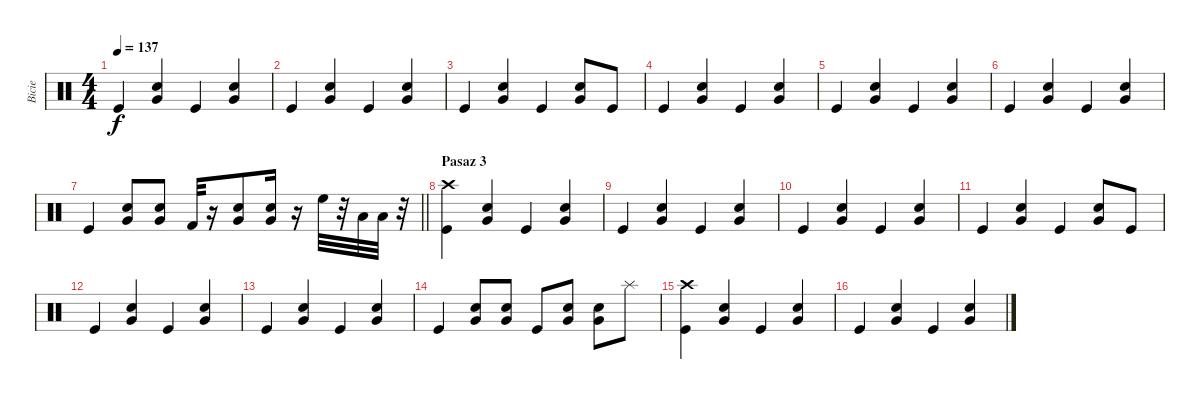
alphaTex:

\track ("Bicie" "Bicie") {instrument percussion}
\staff {score}
\articulation defaults
\ts (4 4)
\tempo 137
\clef neutral
\ks c "Kick (hit)".4{dy f}
("Very Low Tom (hit)" "Snare (hit) 2").4 "Kick (hit)".4 ("Very Low Tom (hit)" "Snare (hit) 2").4 |
"Kick (hit)".4 ("Very Low Tom (hit)" "Snare (hit) 2").4 "Kick (hit)".4 ("Very Low Tom (hit)" "Snare (hit) 2").4 |
"Kick (hit)".4 ("Very Low Tom (hit)" "Snare (hit) 2").4 "Kick (hit)".4 ("Very Low Tom (hit)" "Snare (hit) 2").8 "Kick (hit)".8 |
"Kick (hit)".4 ("Very Low Tom (hit)" "Snare (hit) 2").4 "Kick (hit)".4 ("Very Low Tom (hit)" "Snare (hit) 2").4 |
"Kick (hit)".4 ("Very Low Tom (hit)" "Snare (hit) 2").4 "Kick (hit)".4 ("Very Low Tom (hit)" "Snare (hit) 2").4 |
"Kick (hit)".4 ("Very Low Tom (hit)" "Snare (hit) 2").4 "Kick (hit)".4 ("Very Low Tom (hit)" "Snare (hit) 2").4 |
\barLineRight lightlight "Kick (hit)".4
("Very Low Tom (hit)" "Snare (hit) 2").8 ("Very Low Tom (hit)" "Snare (hit) 2").8 "Kick (hit) 2".32 r.16 ("Very Low Tom (hit)" "Snare (hit) 2").8 ("Very Low Tom (hit)" "Snare (hit) 2").16 r.16 "High Floor Tom (hit)".32 r.32 "Low Tom (hit)".32 "Low Floor Tom (hit)".32 r.32 |
\section ("" "Pasaz 3")
("Crash high (hit)" "Kick (hit)").4 ("Very Low Tom (hit)" "Snare (hit) 2").4 "Kick (hit)".4 ("Very Low Tom (hit)" "Snare (hit) 2").4 |
"Kick (hit)".4 ("Very Low Tom (hit)" "Snare (hit) 2").4 "Kick (hit)".4 ("Very Low Tom (hit)" "Snare (hit) 2").4 |
"Kick (hit)".4 ("Very Low Tom (hit)" "Snare (hit) 2").4 "Kick (hit)".4 ("Very Low Tom (hit)" "Snare (hit) 2").4 |
"Kick (hit)".4 ("Very Low Tom (hit)" "Snare (hit) 2").4 "Kick (hit)".4 ("Very Low Tom (hit)" "Snare (hit) 2").8 "Kick (hit)".8 |
"Kick (hit)".4 ("Very Low Tom (hit)" "Snare (hit) 2").4 "Kick (hit)".4 ("Very Low Tom (hit)" "Snare (hit) 2").4 |
"Kick (hit)".4 ("Very Low Tom (hit)" "Snare (hit) 2").4 "Kick (hit)".4 ("Very Low Tom (hit)" "Snare (hit) 2").4 |
"Kick (hit)".4 ("Very Low Tom (hit)" "Snare (hit) 2").8 ("Very Low Tom (hit)" "Snare (hit) 2").8 "Kick (hit)".8 ("Very Low Tom (hit)" "Snare (hit) 2").8 ("Very Low Tom (hit)" "Snare (hit) 2").8 "Splash (hit)".8 |
("Crash high (hit)" "Kick (hit)").4 ("Very Low Tom (hit)" "Snare (hit) 2").4 "Kick (hit)".4 ("Very Low Tom (hit)" "Snare (hit) 2").4 |
"Kick (hit)".4 ("Very Low Tom (hit)" "Snare (hit) 2").4 "Kick (hit)".4 ("Very Low Tom (hit)" "Snare (hit) 2").4
